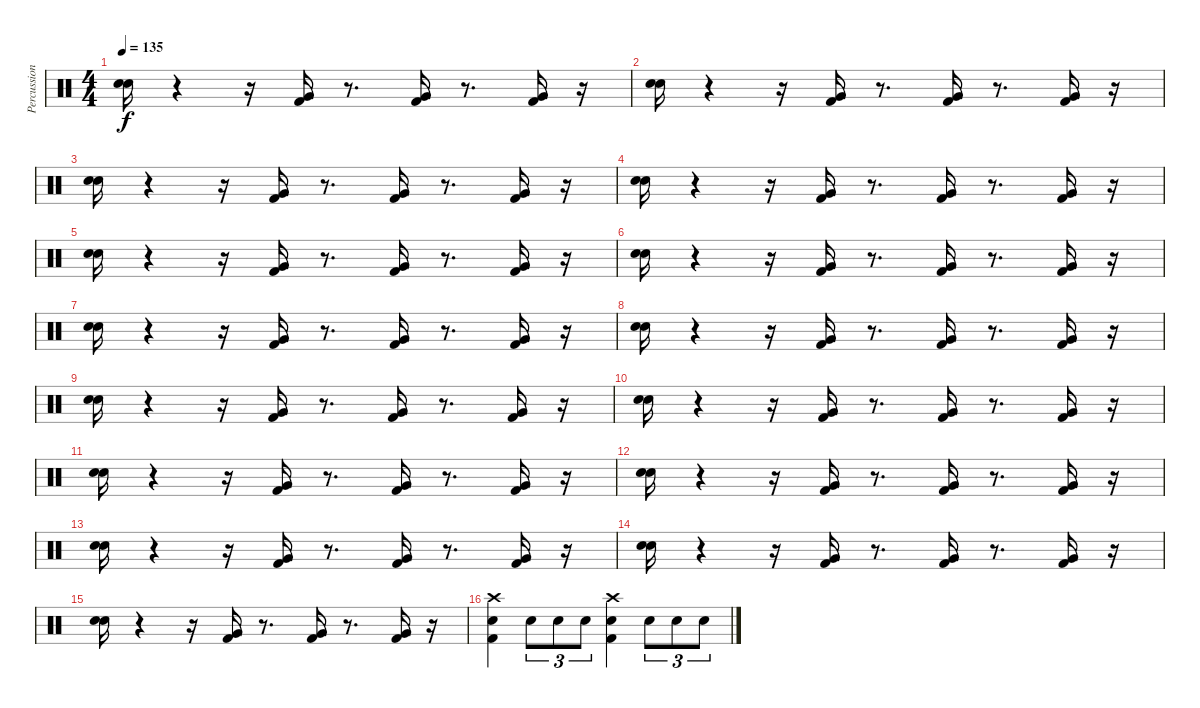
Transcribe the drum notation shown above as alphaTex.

\track ("Percussion" "Percussion") {instrument percussion}
\staff {score}
\articulation defaults
\ts (4 4)
\tempo 135
\clef neutral
\ks c
("Snare (hit) 2" "Electric Snare (hit)").16{dy f} r.4 r.16 ("Kick (hit) 2" "Very Low Tom (hit)").16 r.8{d} ("Kick (hit) 2" "Very Low Tom (hit)").16 r.8{d} ("Kick (hit) 2" "Very Low Tom (hit)").16 r.16 |
("Snare (hit) 2" "Electric Snare (hit)").16 r.4 r.16 ("Kick (hit) 2" "Very Low Tom (hit)").16 r.8{d} ("Kick (hit) 2" "Very Low Tom (hit)").16 r.8{d} ("Kick (hit) 2" "Very Low Tom (hit)").16 r.16 |
("Snare (hit) 2" "Electric Snare (hit)").16 r.4 r.16 ("Kick (hit) 2" "Very Low Tom (hit)").16 r.8{d} ("Kick (hit) 2" "Very Low Tom (hit)").16 r.8{d} ("Kick (hit) 2" "Very Low Tom (hit)").16 r.16 |
("Snare (hit) 2" "Electric Snare (hit)").16 r.4 r.16 ("Kick (hit) 2" "Very Low Tom (hit)").16 r.8{d} ("Kick (hit) 2" "Very Low Tom (hit)").16 r.8{d} ("Kick (hit) 2" "Very Low Tom (hit)").16 r.16 |
("Snare (hit) 2" "Electric Snare (hit)").16 r.4 r.16 ("Kick (hit) 2" "Very Low Tom (hit)").16 r.8{d} ("Kick (hit) 2" "Very Low Tom (hit)").16 r.8{d} ("Kick (hit) 2" "Very Low Tom (hit)").16 r.16 |
("Snare (hit) 2" "Electric Snare (hit)").16 r.4 r.16 ("Kick (hit) 2" "Very Low Tom (hit)").16 r.8{d} ("Kick (hit) 2" "Very Low Tom (hit)").16 r.8{d} ("Kick (hit) 2" "Very Low Tom (hit)").16 r.16 |
("Snare (hit) 2" "Electric Snare (hit)").16 r.4 r.16 ("Kick (hit) 2" "Very Low Tom (hit)").16 r.8{d} ("Kick (hit) 2" "Very Low Tom (hit)").16 r.8{d} ("Kick (hit) 2" "Very Low Tom (hit)").16 r.16 |
("Snare (hit) 2" "Electric Snare (hit)").16 r.4 r.16 ("Kick (hit) 2" "Very Low Tom (hit)").16 r.8{d} ("Kick (hit) 2" "Very Low Tom (hit)").16 r.8{d} ("Kick (hit) 2" "Very Low Tom (hit)").16 r.16 |
("Snare (hit) 2" "Electric Snare (hit)").16 r.4 r.16 ("Kick (hit) 2" "Very Low Tom (hit)").16 r.8{d} ("Kick (hit) 2" "Very Low Tom (hit)").16 r.8{d} ("Kick (hit) 2" "Very Low Tom (hit)").16 r.16 |
("Snare (hit) 2" "Electric Snare (hit)").16 r.4 r.16 ("Kick (hit) 2" "Very Low Tom (hit)").16 r.8{d} ("Kick (hit) 2" "Very Low Tom (hit)").16 r.8{d} ("Kick (hit) 2" "Very Low Tom (hit)").16 r.16 |
("Snare (hit) 2" "Electric Snare (hit)").16 r.4 r.16 ("Kick (hit) 2" "Very Low Tom (hit)").16 r.8{d} ("Kick (hit) 2" "Very Low Tom (hit)").16 r.8{d} ("Kick (hit) 2" "Very Low Tom (hit)").16 r.16 |
("Snare (hit) 2" "Electric Snare (hit)").16 r.4 r.16 ("Kick (hit) 2" "Very Low Tom (hit)").16 r.8{d} ("Kick (hit) 2" "Very Low Tom (hit)").16 r.8{d} ("Kick (hit) 2" "Very Low Tom (hit)").16 r.16 |
("Snare (hit) 2" "Electric Snare (hit)").16 r.4 r.16 ("Kick (hit) 2" "Very Low Tom (hit)").16 r.8{d} ("Kick (hit) 2" "Very Low Tom (hit)").16 r.8{d} ("Kick (hit) 2" "Very Low Tom (hit)").16 r.16 |
("Snare (hit) 2" "Electric Snare (hit)").16 r.4 r.16 ("Kick (hit) 2" "Very Low Tom (hit)").16 r.8{d} ("Kick (hit) 2" "Very Low Tom (hit)").16 r.8{d} ("Kick (hit) 2" "Very Low Tom (hit)").16 r.16 |
("Snare (hit) 2" "Electric Snare (hit)").16 r.4 r.16 ("Kick (hit) 2" "Very Low Tom (hit)").16 r.8{d} ("Kick (hit) 2" "Very Low Tom (hit)").16 r.8{d} ("Kick (hit) 2" "Very Low Tom (hit)").16 r.16 |
("Kick (hit) 2" "Electric Snare (hit)" "Crash high (hit)").4 "Electric Snare (hit)".8{tu (3 2)} "Electric Snare (hit)".8{tu (3 2)} "Electric Snare (hit)".8{tu (3 2)} ("Kick (hit) 2" "Electric Snare (hit)" "Crash high (hit)").4 "Electric Snare (hit)".8{tu (3 2)} "Electric Snare (hit)".8{tu (3 2)} "Electric Snare (hit)".8{tu (3 2)}
